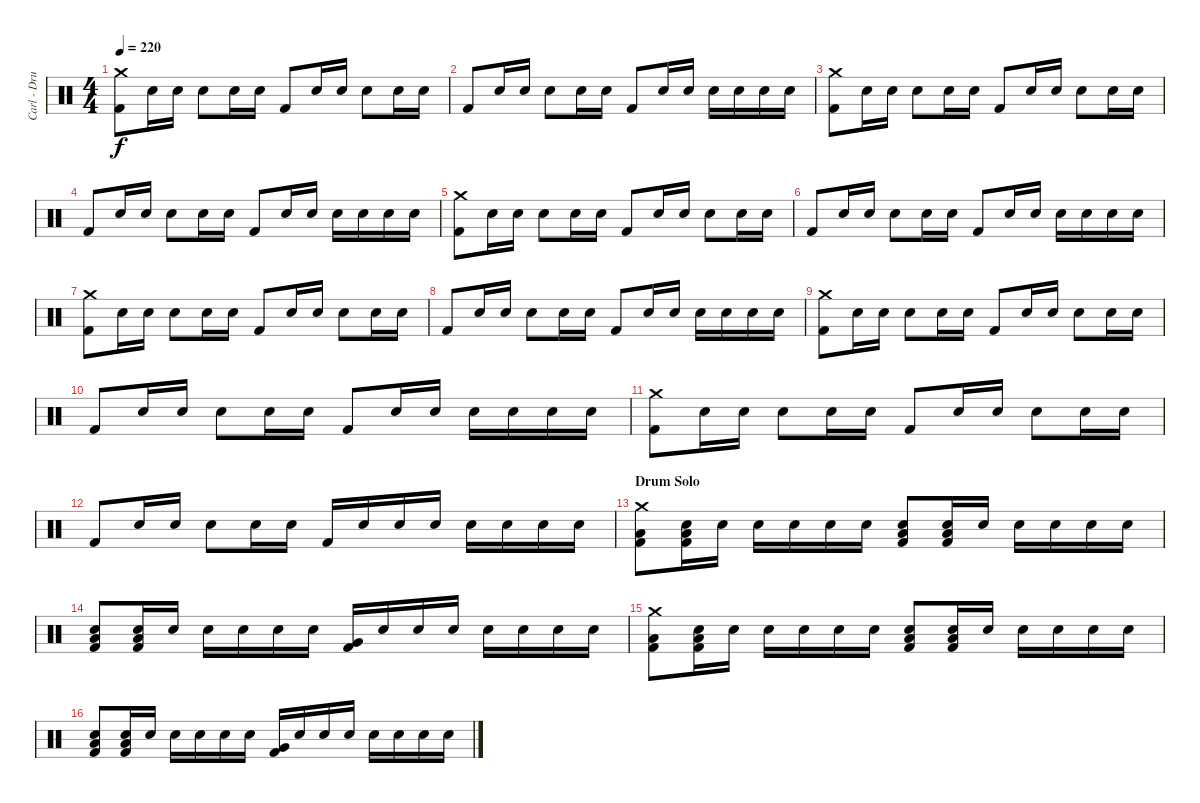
\track ("Carl - Drums" "Carl - Dru") {instrument percussion}
\staff {score}
\articulation defaults
\ts (4 4)
\tempo 220
\clef neutral
\ks c
("Crash medium (hit)" "Kick (hit) 2").8{dy f} "Electric Snare (hit)".16 "Electric Snare (hit)".16 "Electric Snare (hit)".8 "Electric Snare (hit)".16 "Electric Snare (hit)".16 "Kick (hit) 2".8 "Electric Snare (hit)".16 "Electric Snare (hit)".16 "Electric Snare (hit)".8 "Electric Snare (hit)".16 "Electric Snare (hit)".16 |
"Kick (hit) 2".8 "Electric Snare (hit)".16 "Electric Snare (hit)".16 "Electric Snare (hit)".8 "Electric Snare (hit)".16 "Electric Snare (hit)".16 "Kick (hit) 2".8 "Electric Snare (hit)".16 "Electric Snare (hit)".16 "Electric Snare (hit)".16 "Electric Snare (hit)".16 "Electric Snare (hit)".16 "Electric Snare (hit)".16 |
("Crash medium (hit)" "Kick (hit) 2").8 "Electric Snare (hit)".16 "Electric Snare (hit)".16 "Electric Snare (hit)".8 "Electric Snare (hit)".16 "Electric Snare (hit)".16 "Kick (hit) 2".8 "Electric Snare (hit)".16 "Electric Snare (hit)".16 "Electric Snare (hit)".8 "Electric Snare (hit)".16 "Electric Snare (hit)".16 |
"Kick (hit) 2".8 "Electric Snare (hit)".16 "Electric Snare (hit)".16 "Electric Snare (hit)".8 "Electric Snare (hit)".16 "Electric Snare (hit)".16 "Kick (hit) 2".8 "Electric Snare (hit)".16 "Electric Snare (hit)".16 "Electric Snare (hit)".16 "Electric Snare (hit)".16 "Electric Snare (hit)".16 "Electric Snare (hit)".16 |
("Crash medium (hit)" "Kick (hit) 2").8 "Electric Snare (hit)".16 "Electric Snare (hit)".16 "Electric Snare (hit)".8 "Electric Snare (hit)".16 "Electric Snare (hit)".16 "Kick (hit) 2".8 "Electric Snare (hit)".16 "Electric Snare (hit)".16 "Electric Snare (hit)".8 "Electric Snare (hit)".16 "Electric Snare (hit)".16 |
"Kick (hit) 2".8 "Electric Snare (hit)".16 "Electric Snare (hit)".16 "Electric Snare (hit)".8 "Electric Snare (hit)".16 "Electric Snare (hit)".16 "Kick (hit) 2".8 "Electric Snare (hit)".16 "Electric Snare (hit)".16 "Electric Snare (hit)".16 "Electric Snare (hit)".16 "Electric Snare (hit)".16 "Electric Snare (hit)".16 |
("Crash medium (hit)" "Kick (hit) 2").8 "Electric Snare (hit)".16 "Electric Snare (hit)".16 "Electric Snare (hit)".8 "Electric Snare (hit)".16 "Electric Snare (hit)".16 "Kick (hit) 2".8 "Electric Snare (hit)".16 "Electric Snare (hit)".16 "Electric Snare (hit)".8 "Electric Snare (hit)".16 "Electric Snare (hit)".16 |
"Kick (hit) 2".8 "Electric Snare (hit)".16 "Electric Snare (hit)".16 "Electric Snare (hit)".8 "Electric Snare (hit)".16 "Electric Snare (hit)".16 "Kick (hit) 2".8 "Electric Snare (hit)".16 "Electric Snare (hit)".16 "Electric Snare (hit)".16 "Electric Snare (hit)".16 "Electric Snare (hit)".16 "Electric Snare (hit)".16 |
("Crash medium (hit)" "Kick (hit) 2").8 "Electric Snare (hit)".16 "Electric Snare (hit)".16 "Electric Snare (hit)".8 "Electric Snare (hit)".16 "Electric Snare (hit)".16 "Kick (hit) 2".8 "Electric Snare (hit)".16 "Electric Snare (hit)".16 "Electric Snare (hit)".8 "Electric Snare (hit)".16 "Electric Snare (hit)".16 |
"Kick (hit) 2".8 "Electric Snare (hit)".16 "Electric Snare (hit)".16 "Electric Snare (hit)".8 "Electric Snare (hit)".16 "Electric Snare (hit)".16 "Kick (hit) 2".8 "Electric Snare (hit)".16 "Electric Snare (hit)".16 "Electric Snare (hit)".16 "Electric Snare (hit)".16 "Electric Snare (hit)".16 "Electric Snare (hit)".16 |
("Crash medium (hit)" "Kick (hit) 2").8 "Electric Snare (hit)".16 "Electric Snare (hit)".16 "Electric Snare (hit)".8 "Electric Snare (hit)".16 "Electric Snare (hit)".16 "Kick (hit) 2".8 "Electric Snare (hit)".16 "Electric Snare (hit)".16 "Electric Snare (hit)".8 "Electric Snare (hit)".16 "Electric Snare (hit)".16 |
"Kick (hit) 2".8 "Electric Snare (hit)".16 "Electric Snare (hit)".16 "Electric Snare (hit)".8 "Electric Snare (hit)".16 "Electric Snare (hit)".16 "Kick (hit) 2".16 "Electric Snare (hit)".16 "Electric Snare (hit)".16 "Electric Snare (hit)".16 "Electric Snare (hit)".16 "Electric Snare (hit)".16 "Electric Snare (hit)".16 "Electric Snare (hit)".16 |
\section ("" "Drum Solo")
("Low Tom (hit)" "Crash medium (hit)" "Kick (hit) 2").8 ("Low Tom (hit)" "Electric Snare (hit)" "Kick (hit) 2").16 "Electric Snare (hit)".16 "Electric Snare (hit)".16 "Electric Snare (hit)".16 "Electric Snare (hit)".16 "Electric Snare (hit)".16 ("Low Tom (hit)" "Electric Snare (hit)" "Kick (hit) 2").8 ("Low Tom (hit)" "Electric Snare (hit)" "Kick (hit) 2").16 "Electric Snare (hit)".16 "Electric Snare (hit)".16 "Electric Snare (hit)".16 "Electric Snare (hit)".16 "Electric Snare (hit)".16 |
("Low Tom (hit)" "Electric Snare (hit)" "Kick (hit) 2").8 ("Low Tom (hit)" "Electric Snare (hit)" "Kick (hit) 2").16 "Electric Snare (hit)".16 "Electric Snare (hit)".16 "Electric Snare (hit)".16 "Electric Snare (hit)".16 "Electric Snare (hit)".16 ("Very Low Tom (hit)" "Kick (hit) 2").16 "Electric Snare (hit)".16 "Electric Snare (hit)".16 "Electric Snare (hit)".16 "Electric Snare (hit)".16 "Electric Snare (hit)".16 "Electric Snare (hit)".16 "Electric Snare (hit)".16 |
("Low Tom (hit)" "Crash medium (hit)" "Kick (hit) 2").8 ("Low Tom (hit)" "Electric Snare (hit)" "Kick (hit) 2").16 "Electric Snare (hit)".16 "Electric Snare (hit)".16 "Electric Snare (hit)".16 "Electric Snare (hit)".16 "Electric Snare (hit)".16 ("Low Tom (hit)" "Electric Snare (hit)" "Kick (hit) 2").8 ("Low Tom (hit)" "Electric Snare (hit)" "Kick (hit) 2").16 "Electric Snare (hit)".16 "Electric Snare (hit)".16 "Electric Snare (hit)".16 "Electric Snare (hit)".16 "Electric Snare (hit)".16 |
("Low Tom (hit)" "Electric Snare (hit)" "Kick (hit) 2").8 ("Low Tom (hit)" "Electric Snare (hit)" "Kick (hit) 2").16 "Electric Snare (hit)".16 "Electric Snare (hit)".16 "Electric Snare (hit)".16 "Electric Snare (hit)".16 "Electric Snare (hit)".16 ("Very Low Tom (hit)" "Kick (hit) 2").16 "Electric Snare (hit)".16 "Electric Snare (hit)".16 "Electric Snare (hit)".16 "Electric Snare (hit)".16 "Electric Snare (hit)".16 "Electric Snare (hit)".16 "Electric Snare (hit)".16
